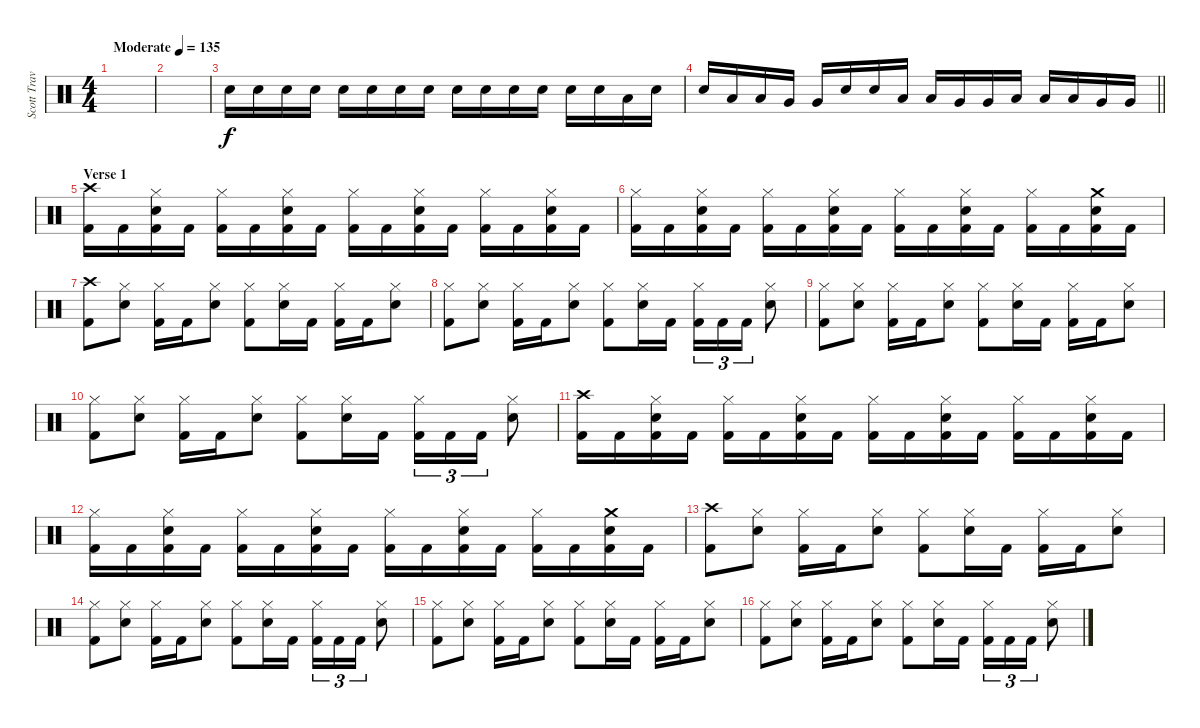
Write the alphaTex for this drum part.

\track ("Scott Travis" "Scott Trav") {instrument percussion}
\staff {score}
\articulation defaults
\ts (4 4)
\tempo (135 "Moderate")
\clef neutral
\ks c
|
|
"Snare (hit) 2".16 "Snare (hit) 2".16 "Snare (hit) 2".16 "Snare (hit) 2".16 "Snare (hit) 2".16 "Snare (hit) 2".16 "Snare (hit) 2".16 "Snare (hit) 2".16 "Snare (hit) 2".16 "Snare (hit) 2".16 "Snare (hit) 2".16 "Snare (hit) 2".16 "Snare (hit) 2".16 "Snare (hit) 2".16 "Low Tom (hit)".16 "Snare (hit) 2".16 |
\barLineRight lightlight "Snare (hit) 2".16 "Low Tom (hit)".16 "Low Tom (hit)".16 "Very Low Tom (hit)".16 "Very Low Tom (hit)".16 "Snare (hit) 2".16 "Snare (hit) 2".16 "Low Tom (hit)".16 "Low Tom (hit)".16 "Very Low Tom (hit)".16 "Very Low Tom (hit)".16 "Low Tom (hit)".16 "Low Tom (hit)".16 "Low Tom (hit)".16 "Very Low Tom (hit)".16 "Very Low Tom (hit)".16
|
\section ("" "Verse 1")
("Crash high (hit)" "Kick (hit) 2").16 "Kick (hit) 2".16 ("Hi-Hat (closed)" "Snare (hit) 2" "Kick (hit) 2").16 "Kick (hit) 2".16 ("Hi-Hat (closed)" "Kick (hit) 2").16 "Kick (hit) 2".16 ("Hi-Hat (closed)" "Snare (hit) 2" "Kick (hit) 2").16 "Kick (hit) 2".16 ("Hi-Hat (closed)" "Kick (hit) 2").16 "Kick (hit) 2".16 ("Hi-Hat (closed)" "Snare (hit) 2" "Kick (hit) 2").16 "Kick (hit) 2".16 ("Hi-Hat (closed)" "Kick (hit) 2").16 "Kick (hit) 2".16 ("Hi-Hat (closed)" "Snare (hit) 2" "Kick (hit) 2").16 "Kick (hit) 2".16 |
("Hi-Hat (closed)" "Kick (hit) 2").16 "Kick (hit) 2".16 ("Hi-Hat (closed)" "Snare (hit) 2" "Kick (hit) 2").16 "Kick (hit) 2".16 ("Hi-Hat (closed)" "Kick (hit) 2").16 "Kick (hit) 2".16 ("Hi-Hat (closed)" "Snare (hit) 2" "Kick (hit) 2").16 "Kick (hit) 2".16 ("Hi-Hat (closed)" "Kick (hit) 2").16 "Kick (hit) 2".16 ("Hi-Hat (closed)" "Snare (hit) 2" "Kick (hit) 2").16 "Kick (hit) 2".16 ("Hi-Hat (closed)" "Kick (hit) 2").16 "Kick (hit) 2".16 ("Crash medium (hit)" "Snare (hit) 2" "Kick (hit) 2").16 "Kick (hit) 2".16 |
("Crash high (hit)" "Kick (hit) 2").8 ("Hi-Hat (closed)" "Snare (hit) 2").8 ("Hi-Hat (closed)" "Kick (hit) 2").16 "Kick (hit) 2".16 ("Hi-Hat (closed)" "Snare (hit) 2").8 ("Hi-Hat (closed)" "Kick (hit) 2").8 ("Hi-Hat (closed)" "Snare (hit) 2").16 "Kick (hit) 2".16 ("Hi-Hat (closed)" "Kick (hit) 2").16 "Kick (hit) 2".16 ("Hi-Hat (closed)" "Snare (hit) 2").8 |
("Hi-Hat (closed)" "Kick (hit) 2").8 ("Hi-Hat (closed)" "Snare (hit) 2").8 ("Hi-Hat (closed)" "Kick (hit) 2").16 "Kick (hit) 2".16 ("Hi-Hat (closed)" "Snare (hit) 2").8 ("Hi-Hat (closed)" "Kick (hit) 2").8 ("Hi-Hat (closed)" "Snare (hit) 2").16 "Kick (hit) 2".16 ("Hi-Hat (closed)" "Kick (hit) 2").16{tu (3 2)} "Kick (hit) 2".16{tu (3 2)} "Kick (hit) 2".16{tu (3 2)} ("Hi-Hat (closed)" "Snare (hit) 2").8 |
("Hi-Hat (closed)" "Kick (hit) 2").8 ("Hi-Hat (closed)" "Snare (hit) 2").8 ("Hi-Hat (closed)" "Kick (hit) 2").16 "Kick (hit) 2".16 ("Hi-Hat (closed)" "Snare (hit) 2").8 ("Hi-Hat (closed)" "Kick (hit) 2").8 ("Hi-Hat (closed)" "Snare (hit) 2").16 "Kick (hit) 2".16 ("Hi-Hat (closed)" "Kick (hit) 2").16 "Kick (hit) 2".16 ("Hi-Hat (closed)" "Snare (hit) 2").8 |
("Hi-Hat (closed)" "Kick (hit) 2").8 ("Hi-Hat (closed)" "Snare (hit) 2").8 ("Hi-Hat (closed)" "Kick (hit) 2").16 "Kick (hit) 2".16 ("Hi-Hat (closed)" "Snare (hit) 2").8 ("Hi-Hat (closed)" "Kick (hit) 2").8 ("Hi-Hat (closed)" "Snare (hit) 2").16 "Kick (hit) 2".16 ("Hi-Hat (closed)" "Kick (hit) 2").16{tu (3 2)} "Kick (hit) 2".16{tu (3 2)} "Kick (hit) 2".16{tu (3 2)} ("Hi-Hat (closed)" "Snare (hit) 2").8 |
("Crash high (hit)" "Kick (hit) 2").16 "Kick (hit) 2".16 ("Hi-Hat (closed)" "Snare (hit) 2" "Kick (hit) 2").16 "Kick (hit) 2".16 ("Hi-Hat (closed)" "Kick (hit) 2").16 "Kick (hit) 2".16 ("Hi-Hat (closed)" "Snare (hit) 2" "Kick (hit) 2").16 "Kick (hit) 2".16 ("Hi-Hat (closed)" "Kick (hit) 2").16 "Kick (hit) 2".16 ("Hi-Hat (closed)" "Snare (hit) 2" "Kick (hit) 2").16 "Kick (hit) 2".16 ("Hi-Hat (closed)" "Kick (hit) 2").16 "Kick (hit) 2".16 ("Hi-Hat (closed)" "Snare (hit) 2" "Kick (hit) 2").16 "Kick (hit) 2".16 |
("Hi-Hat (closed)" "Kick (hit) 2").16 "Kick (hit) 2".16 ("Hi-Hat (closed)" "Snare (hit) 2" "Kick (hit) 2").16 "Kick (hit) 2".16 ("Hi-Hat (closed)" "Kick (hit) 2").16 "Kick (hit) 2".16 ("Hi-Hat (closed)" "Snare (hit) 2" "Kick (hit) 2").16 "Kick (hit) 2".16 ("Hi-Hat (closed)" "Kick (hit) 2").16 "Kick (hit) 2".16 ("Hi-Hat (closed)" "Snare (hit) 2" "Kick (hit) 2").16 "Kick (hit) 2".16 ("Hi-Hat (closed)" "Kick (hit) 2").16 "Kick (hit) 2".16 ("Crash medium (hit)" "Snare (hit) 2" "Kick (hit) 2").16 "Kick (hit) 2".16 |
("Crash high (hit)" "Kick (hit) 2").8 ("Hi-Hat (closed)" "Snare (hit) 2").8 ("Hi-Hat (closed)" "Kick (hit) 2").16 "Kick (hit) 2".16 ("Hi-Hat (closed)" "Snare (hit) 2").8 ("Hi-Hat (closed)" "Kick (hit) 2").8 ("Hi-Hat (closed)" "Snare (hit) 2").16 "Kick (hit) 2".16 ("Hi-Hat (closed)" "Kick (hit) 2").16 "Kick (hit) 2".16 ("Hi-Hat (closed)" "Snare (hit) 2").8 |
("Hi-Hat (closed)" "Kick (hit) 2").8 ("Hi-Hat (closed)" "Snare (hit) 2").8 ("Hi-Hat (closed)" "Kick (hit) 2").16 "Kick (hit) 2".16 ("Hi-Hat (closed)" "Snare (hit) 2").8 ("Hi-Hat (closed)" "Kick (hit) 2").8 ("Hi-Hat (closed)" "Snare (hit) 2").16 "Kick (hit) 2".16 ("Hi-Hat (closed)" "Kick (hit) 2").16{tu (3 2)} "Kick (hit) 2".16{tu (3 2)} "Kick (hit) 2".16{tu (3 2)} ("Hi-Hat (closed)" "Snare (hit) 2").8 |
("Hi-Hat (closed)" "Kick (hit) 2").8 ("Hi-Hat (closed)" "Snare (hit) 2").8 ("Hi-Hat (closed)" "Kick (hit) 2").16 "Kick (hit) 2".16 ("Hi-Hat (closed)" "Snare (hit) 2").8 ("Hi-Hat (closed)" "Kick (hit) 2").8 ("Hi-Hat (closed)" "Snare (hit) 2").16 "Kick (hit) 2".16 ("Hi-Hat (closed)" "Kick (hit) 2").16 "Kick (hit) 2".16 ("Hi-Hat (closed)" "Snare (hit) 2").8 |
("Hi-Hat (closed)" "Kick (hit) 2").8 ("Hi-Hat (closed)" "Snare (hit) 2").8 ("Hi-Hat (closed)" "Kick (hit) 2").16 "Kick (hit) 2".16 ("Hi-Hat (closed)" "Snare (hit) 2").8 ("Hi-Hat (closed)" "Kick (hit) 2").8 ("Hi-Hat (closed)" "Snare (hit) 2").16 "Kick (hit) 2".16 ("Hi-Hat (closed)" "Kick (hit) 2").16{tu (3 2)} "Kick (hit) 2".16{tu (3 2)} "Kick (hit) 2".16{tu (3 2)} ("Hi-Hat (closed)" "Snare (hit) 2").8
